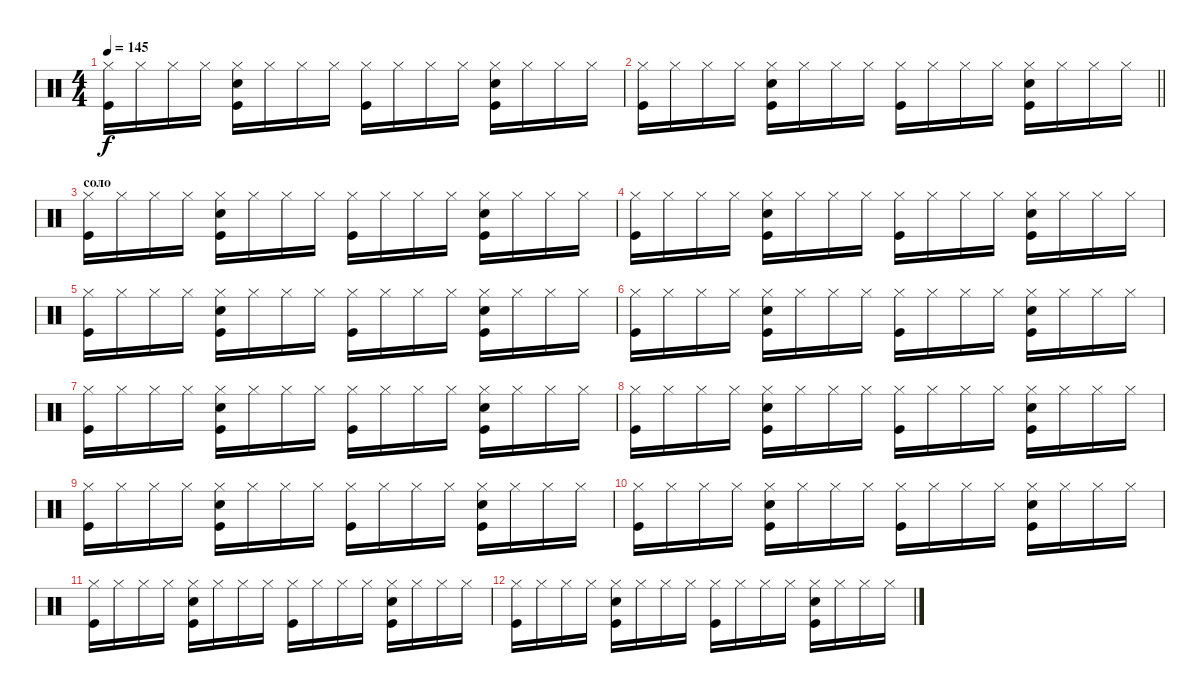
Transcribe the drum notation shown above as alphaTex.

\track "" {instrument percussion}
\staff {score}
\articulation defaults
\ts (4 4)
\tempo 145
\clef neutral
\ks c
("Hi-Hat (closed)" "Kick (hit)").16{dy f} "Hi-Hat (closed)".16 "Hi-Hat (closed)".16 "Hi-Hat (closed)".16 ("Snare (hit) 2" "Hi-Hat (closed)" "Kick (hit)").16 "Hi-Hat (closed)".16 "Hi-Hat (closed)".16 "Hi-Hat (closed)".16 ("Hi-Hat (closed)" "Kick (hit)").16 "Hi-Hat (closed)".16 "Hi-Hat (closed)".16 "Hi-Hat (closed)".16 ("Snare (hit) 2" "Hi-Hat (closed)" "Kick (hit)").16 "Hi-Hat (closed)".16 "Hi-Hat (closed)".16 "Hi-Hat (closed)".16 |
\barLineRight lightlight
("Hi-Hat (closed)" "Kick (hit)").16 "Hi-Hat (closed)".16 "Hi-Hat (closed)".16 "Hi-Hat (closed)".16 ("Snare (hit) 2" "Hi-Hat (closed)" "Kick (hit)").16 "Hi-Hat (closed)".16 "Hi-Hat (closed)".16 "Hi-Hat (closed)".16 ("Hi-Hat (closed)" "Kick (hit)").16 "Hi-Hat (closed)".16 "Hi-Hat (closed)".16 "Hi-Hat (closed)".16 ("Snare (hit) 2" "Hi-Hat (closed)" "Kick (hit)").16 "Hi-Hat (closed)".16 "Hi-Hat (closed)".16 "Hi-Hat (closed)".16 |
\section ("" "соло")
("Hi-Hat (closed)" "Kick (hit)").16 "Hi-Hat (closed)".16 "Hi-Hat (closed)".16 "Hi-Hat (closed)".16 ("Snare (hit) 2" "Hi-Hat (closed)" "Kick (hit)").16 "Hi-Hat (closed)".16 "Hi-Hat (closed)".16 "Hi-Hat (closed)".16 ("Hi-Hat (closed)" "Kick (hit)").16 "Hi-Hat (closed)".16 "Hi-Hat (closed)".16 "Hi-Hat (closed)".16 ("Snare (hit) 2" "Hi-Hat (closed)" "Kick (hit)").16 "Hi-Hat (closed)".16 "Hi-Hat (closed)".16 "Hi-Hat (closed)".16 |
("Hi-Hat (closed)" "Kick (hit)").16 "Hi-Hat (closed)".16 "Hi-Hat (closed)".16 "Hi-Hat (closed)".16 ("Snare (hit) 2" "Hi-Hat (closed)" "Kick (hit)").16 "Hi-Hat (closed)".16 "Hi-Hat (closed)".16 "Hi-Hat (closed)".16 ("Hi-Hat (closed)" "Kick (hit)").16 "Hi-Hat (closed)".16 "Hi-Hat (closed)".16 "Hi-Hat (closed)".16 ("Snare (hit) 2" "Hi-Hat (closed)" "Kick (hit)").16 "Hi-Hat (closed)".16 "Hi-Hat (closed)".16 "Hi-Hat (closed)".16 |
("Hi-Hat (closed)" "Kick (hit)").16 "Hi-Hat (closed)".16 "Hi-Hat (closed)".16 "Hi-Hat (closed)".16 ("Snare (hit) 2" "Hi-Hat (closed)" "Kick (hit)").16 "Hi-Hat (closed)".16 "Hi-Hat (closed)".16 "Hi-Hat (closed)".16 ("Hi-Hat (closed)" "Kick (hit)").16 "Hi-Hat (closed)".16 "Hi-Hat (closed)".16 "Hi-Hat (closed)".16 ("Snare (hit) 2" "Hi-Hat (closed)" "Kick (hit)").16 "Hi-Hat (closed)".16 "Hi-Hat (closed)".16 "Hi-Hat (closed)".16 |
("Hi-Hat (closed)" "Kick (hit)").16 "Hi-Hat (closed)".16 "Hi-Hat (closed)".16 "Hi-Hat (closed)".16 ("Snare (hit) 2" "Hi-Hat (closed)" "Kick (hit)").16 "Hi-Hat (closed)".16 "Hi-Hat (closed)".16 "Hi-Hat (closed)".16 ("Hi-Hat (closed)" "Kick (hit)").16 "Hi-Hat (closed)".16 "Hi-Hat (closed)".16 "Hi-Hat (closed)".16 ("Snare (hit) 2" "Hi-Hat (closed)" "Kick (hit)").16 "Hi-Hat (closed)".16 "Hi-Hat (closed)".16 "Hi-Hat (closed)".16 |
("Hi-Hat (closed)" "Kick (hit)").16 "Hi-Hat (closed)".16 "Hi-Hat (closed)".16 "Hi-Hat (closed)".16 ("Snare (hit) 2" "Hi-Hat (closed)" "Kick (hit)").16 "Hi-Hat (closed)".16 "Hi-Hat (closed)".16 "Hi-Hat (closed)".16 ("Hi-Hat (closed)" "Kick (hit)").16 "Hi-Hat (closed)".16 "Hi-Hat (closed)".16 "Hi-Hat (closed)".16 ("Snare (hit) 2" "Hi-Hat (closed)" "Kick (hit)").16 "Hi-Hat (closed)".16 "Hi-Hat (closed)".16 "Hi-Hat (closed)".16 |
("Hi-Hat (closed)" "Kick (hit)").16 "Hi-Hat (closed)".16 "Hi-Hat (closed)".16 "Hi-Hat (closed)".16 ("Snare (hit) 2" "Hi-Hat (closed)" "Kick (hit)").16 "Hi-Hat (closed)".16 "Hi-Hat (closed)".16 "Hi-Hat (closed)".16 ("Hi-Hat (closed)" "Kick (hit)").16 "Hi-Hat (closed)".16 "Hi-Hat (closed)".16 "Hi-Hat (closed)".16 ("Snare (hit) 2" "Hi-Hat (closed)" "Kick (hit)").16 "Hi-Hat (closed)".16 "Hi-Hat (closed)".16 "Hi-Hat (closed)".16 |
("Hi-Hat (closed)" "Kick (hit)").16 "Hi-Hat (closed)".16 "Hi-Hat (closed)".16 "Hi-Hat (closed)".16 ("Snare (hit) 2" "Hi-Hat (closed)" "Kick (hit)").16 "Hi-Hat (closed)".16 "Hi-Hat (closed)".16 "Hi-Hat (closed)".16 ("Hi-Hat (closed)" "Kick (hit)").16 "Hi-Hat (closed)".16 "Hi-Hat (closed)".16 "Hi-Hat (closed)".16 ("Snare (hit) 2" "Hi-Hat (closed)" "Kick (hit)").16 "Hi-Hat (closed)".16 "Hi-Hat (closed)".16 "Hi-Hat (closed)".16 |
("Hi-Hat (closed)" "Kick (hit)").16 "Hi-Hat (closed)".16 "Hi-Hat (closed)".16 "Hi-Hat (closed)".16 ("Snare (hit) 2" "Hi-Hat (closed)" "Kick (hit)").16 "Hi-Hat (closed)".16 "Hi-Hat (closed)".16 "Hi-Hat (closed)".16 ("Hi-Hat (closed)" "Kick (hit)").16 "Hi-Hat (closed)".16 "Hi-Hat (closed)".16 "Hi-Hat (closed)".16 ("Snare (hit) 2" "Hi-Hat (closed)" "Kick (hit)").16 "Hi-Hat (closed)".16 "Hi-Hat (closed)".16 "Hi-Hat (closed)".16 |
("Hi-Hat (closed)" "Kick (hit)").16 "Hi-Hat (closed)".16 "Hi-Hat (closed)".16 "Hi-Hat (closed)".16 ("Snare (hit) 2" "Hi-Hat (closed)" "Kick (hit)").16 "Hi-Hat (closed)".16 "Hi-Hat (closed)".16 "Hi-Hat (closed)".16 ("Hi-Hat (closed)" "Kick (hit)").16 "Hi-Hat (closed)".16 "Hi-Hat (closed)".16 "Hi-Hat (closed)".16 ("Snare (hit) 2" "Hi-Hat (closed)" "Kick (hit)").16 "Hi-Hat (closed)".16 "Hi-Hat (closed)".16 "Hi-Hat (closed)".16 |
("Hi-Hat (closed)" "Kick (hit)").16 "Hi-Hat (closed)".16 "Hi-Hat (closed)".16 "Hi-Hat (closed)".16 ("Snare (hit) 2" "Hi-Hat (closed)" "Kick (hit)").16 "Hi-Hat (closed)".16 "Hi-Hat (closed)".16 "Hi-Hat (closed)".16 ("Hi-Hat (closed)" "Kick (hit)").16 "Hi-Hat (closed)".16 "Hi-Hat (closed)".16 "Hi-Hat (closed)".16 ("Snare (hit) 2" "Hi-Hat (closed)" "Kick (hit)").16 "Hi-Hat (closed)".16 "Hi-Hat (closed)".16 "Hi-Hat (closed)".16
